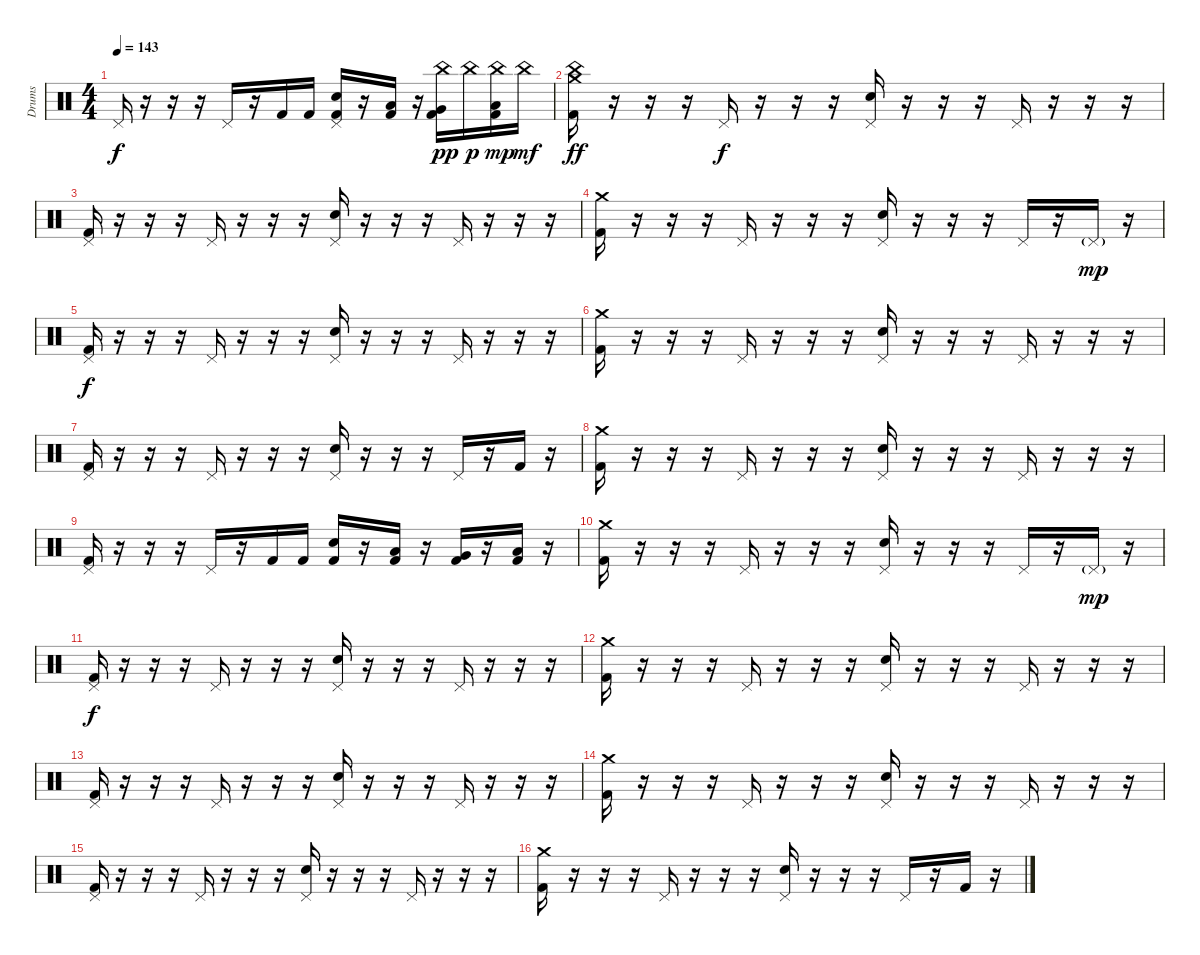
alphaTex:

\track ("Drums" "Drums") {instrument percussion}
\staff {score}
\articulation defaults
\ts (4 4)
\tempo 143
\clef neutral
\ks c "Pedal Hi-Hat (hit)".16{dy f}
r.16 r.16 r.16 "Pedal Hi-Hat (hit)".16 r.16 "Kick (hit) 2".16 "Kick (hit) 2".16 ("Pedal Hi-Hat (hit)" "Electric Snare (hit)" "Kick (hit) 2").16 r.16 ("Low Tom (hit)" "Kick (hit) 2").16 r.16 ("China (hit)" "Very Low Tom (hit)" "Kick (hit) 2").16{dy pp} "China (hit)".16{dy p} ("China (hit)" "Low Floor Tom (hit)" "Kick (hit) 2").16{dy mp} "China (hit)".16{dy mf} |
\section ("" "")
("Crash medium (hit)" "China (hit)" "Kick (hit) 2").16{dy ff} r.16 r.16 r.16 "Pedal Hi-Hat (hit)".16{dy f} r.16 r.16 r.16 ("Pedal Hi-Hat (hit)" "Electric Snare (hit)").16 r.16 r.16 r.16 "Pedal Hi-Hat (hit)".16 r.16 r.16 r.16 |
("Pedal Hi-Hat (hit)" "Kick (hit) 2").16 r.16 r.16 r.16 "Pedal Hi-Hat (hit)".16 r.16 r.16 r.16 ("Pedal Hi-Hat (hit)" "Electric Snare (hit)").16 r.16 r.16 r.16 "Pedal Hi-Hat (hit)".16 r.16 r.16 r.16 |
("Crash medium (hit)" "Kick (hit) 2").16 r.16 r.16 r.16 "Pedal Hi-Hat (hit)".16 r.16 r.16 r.16 ("Pedal Hi-Hat (hit)" "Electric Snare (hit)").16 r.16 r.16 r.16 "Pedal Hi-Hat (hit)".16 r.16 "Pedal Hi-Hat (hit)"{g}.16{dy mp} r.16 |
("Pedal Hi-Hat (hit)" "Kick (hit) 2").16{dy f} r.16 r.16 r.16 "Pedal Hi-Hat (hit)".16 r.16 r.16 r.16 ("Pedal Hi-Hat (hit)" "Electric Snare (hit)").16 r.16 r.16 r.16 "Pedal Hi-Hat (hit)".16 r.16 r.16 r.16 |
("Crash medium (hit)" "Kick (hit) 2").16 r.16 r.16 r.16 "Pedal Hi-Hat (hit)".16 r.16 r.16 r.16 ("Pedal Hi-Hat (hit)" "Electric Snare (hit)").16 r.16 r.16 r.16 "Pedal Hi-Hat (hit)".16 r.16 r.16 r.16 |
("Pedal Hi-Hat (hit)" "Kick (hit) 2").16 r.16 r.16 r.16 "Pedal Hi-Hat (hit)".16 r.16 r.16 r.16 ("Pedal Hi-Hat (hit)" "Electric Snare (hit)").16 r.16 r.16 r.16 "Pedal Hi-Hat (hit)".16 r.16 "Kick (hit) 2".16 r.16 |
("Crash medium (hit)" "Kick (hit) 2").16 r.16 r.16 r.16 "Pedal Hi-Hat (hit)".16 r.16 r.16 r.16 ("Pedal Hi-Hat (hit)" "Electric Snare (hit)").16 r.16 r.16 r.16 "Pedal Hi-Hat (hit)".16 r.16 r.16 r.16 |
("Pedal Hi-Hat (hit)" "Kick (hit) 2").16 r.16 r.16 r.16 "Pedal Hi-Hat (hit)".16 r.16 "Kick (hit) 2".16 "Kick (hit) 2".16 ("Electric Snare (hit)" "Kick (hit) 2").16 r.16 ("Low Tom (hit)" "Kick (hit) 2").16 r.16 ("Very Low Tom (hit)" "Kick (hit) 2").16 r.16 ("Low Floor Tom (hit)" "Kick (hit) 2").16 r.16 |
("Crash medium (hit)" "Kick (hit) 2").16 r.16 r.16 r.16 "Pedal Hi-Hat (hit)".16 r.16 r.16 r.16 ("Pedal Hi-Hat (hit)" "Electric Snare (hit)").16 r.16 r.16 r.16 "Pedal Hi-Hat (hit)".16 r.16 "Pedal Hi-Hat (hit)"{g}.16{dy mp} r.16 |
("Pedal Hi-Hat (hit)" "Kick (hit) 2").16{dy f} r.16 r.16 r.16 "Pedal Hi-Hat (hit)".16 r.16 r.16 r.16 ("Pedal Hi-Hat (hit)" "Electric Snare (hit)").16 r.16 r.16 r.16 "Pedal Hi-Hat (hit)".16 r.16 r.16 r.16 |
("Crash medium (hit)" "Kick (hit) 2").16 r.16 r.16 r.16 "Pedal Hi-Hat (hit)".16 r.16 r.16 r.16 ("Pedal Hi-Hat (hit)" "Electric Snare (hit)").16 r.16 r.16 r.16 "Pedal Hi-Hat (hit)".16 r.16 r.16 r.16 |
("Pedal Hi-Hat (hit)" "Kick (hit) 2").16 r.16 r.16 r.16 "Pedal Hi-Hat (hit)".16 r.16 r.16 r.16 ("Pedal Hi-Hat (hit)" "Electric Snare (hit)").16 r.16 r.16 r.16 "Pedal Hi-Hat (hit)".16 r.16 r.16 r.16 |
("Crash medium (hit)" "Kick (hit) 2").16 r.16 r.16 r.16 "Pedal Hi-Hat (hit)".16 r.16 r.16 r.16 ("Pedal Hi-Hat (hit)" "Electric Snare (hit)").16 r.16 r.16 r.16 "Pedal Hi-Hat (hit)".16 r.16 r.16 r.16 |
("Pedal Hi-Hat (hit)" "Kick (hit) 2").16 r.16 r.16 r.16 "Pedal Hi-Hat (hit)".16 r.16 r.16 r.16 ("Pedal Hi-Hat (hit)" "Electric Snare (hit)").16 r.16 r.16 r.16 "Pedal Hi-Hat (hit)".16 r.16 r.16 r.16 |
("Crash medium (hit)" "Kick (hit) 2").16 r.16 r.16 r.16 "Pedal Hi-Hat (hit)".16 r.16 r.16 r.16 ("Pedal Hi-Hat (hit)" "Electric Snare (hit)").16 r.16 r.16 r.16 "Pedal Hi-Hat (hit)".16 r.16 "Kick (hit) 2".16 r.16
